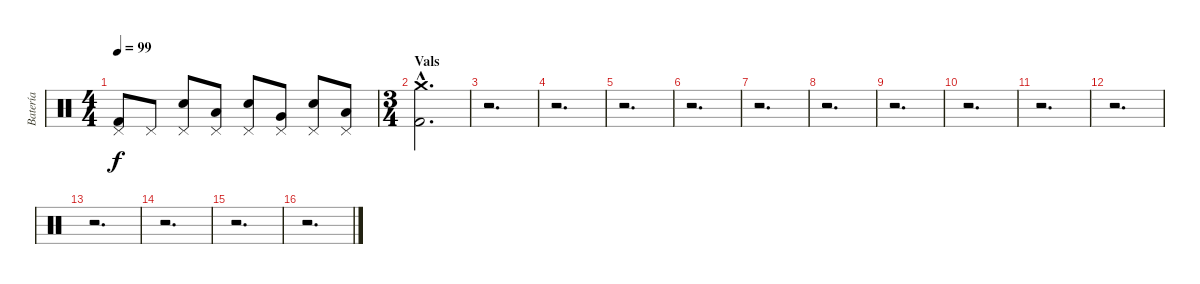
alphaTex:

\track ("Batería" "Batería") {instrument percussion}
\staff {score}
\articulation defaults
\ts (4 4)
\tempo 99
\clef neutral
\ks c
("Kick (hit) 2" "Pedal Hi-Hat (hit)").8{dy f} "Pedal Hi-Hat (hit)".8 ("Snare (hit) 2" "Pedal Hi-Hat (hit)").8 ("Low Tom (hit)" "Pedal Hi-Hat (hit)").8 ("Snare (hit) 2" "Pedal Hi-Hat (hit)").8 ("Very Low Tom (hit)" "Pedal Hi-Hat (hit)").8 ("Snare (hit) 2" "Pedal Hi-Hat (hit)").8 ("Low Floor Tom (hit)" "Pedal Hi-Hat (hit)").8 |
\ts (3 4)
\section ("" "Vals")
("Crash medium (hit)"{hac} "Kick (hit) 2"{hac}).2{d} |
r.2{d} |
r.2{d} |
r.2{d} |
r.2{d} |
r.2{d} |
r.2{d} |
r.2{d} |
r.2{d} |
r.2{d} |
r.2{d} |
r.2{d} |
r.2{d} |
r.2{d} |
r.2{d}
